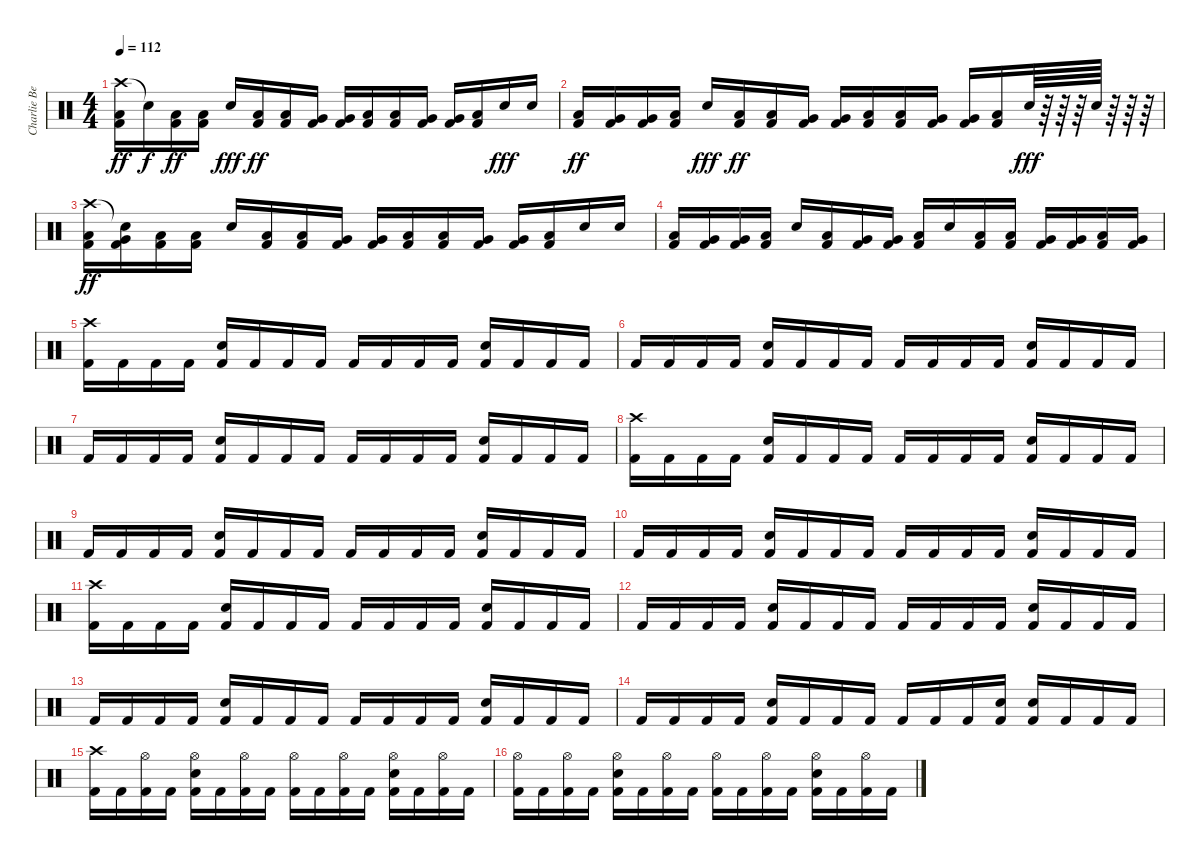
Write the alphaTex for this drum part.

\track ("Charlie Benante" "Charlie Be") {instrument percussion}
\staff {score}
\articulation defaults
\ts (4 4)
\tempo 112
\clef neutral
\ks c
("Crash high (hit)" "Kick (hit) 2" "Low Floor Tom (hit)").16{dy ff} "Snare (hit)"{t}.16{dy f} ("Kick (hit) 2" "Low Floor Tom (hit)").16{dy ff} ("Kick (hit) 2" "Low Floor Tom (hit)").16 "Snare (hit) 2".16{dy fff} ("Kick (hit) 2" "Low Floor Tom (hit)").16{dy ff} ("Kick (hit) 2" "Low Floor Tom (hit)").16 ("Kick (hit) 2" "Very Low Tom (hit)").16 ("Kick (hit) 2" "Very Low Tom (hit)").16 ("Kick (hit) 2" "Low Tom (hit)").16 ("Kick (hit) 2" "Low Tom (hit)").16 ("Kick (hit) 2" "Very Low Tom (hit)").16 ("Kick (hit) 2" "Very Low Tom (hit)").16 ("Kick (hit) 2" "Low Floor Tom (hit)").16 "Snare (hit) 2".16{dy fff} "Snare (hit) 2".16 |
("Kick (hit) 2" "Low Floor Tom (hit)").16{dy ff} ("Kick (hit) 2" "Very Low Tom (hit)").16 ("Kick (hit) 2" "Very Low Tom (hit)").16 ("Kick (hit) 2" "Low Floor Tom (hit)").16 "Snare (hit) 2".16{dy fff} ("Kick (hit) 2" "Low Floor Tom (hit)").16{dy ff} ("Kick (hit) 2" "Low Floor Tom (hit)").16 ("Kick (hit) 2" "Very Low Tom (hit)").16 ("Kick (hit) 2" "Very Low Tom (hit)").16 ("Kick (hit) 2" "Low Tom (hit)").16 ("Kick (hit) 2" "Low Tom (hit)").16 ("Kick (hit) 2" "Very Low Tom (hit)").16 ("Kick (hit) 2" "Very Low Tom (hit)").16 ("Kick (hit) 2" "Low Floor Tom (hit)").16 "Snare (hit) 2".64{dy fff} r.64 r.64 r.64 "Snare (hit) 2".64 r.64 r.64 r.64 |
("Crash high (hit)" "Kick (hit) 2" "Low Floor Tom (hit)").16{dy ff} ("Snare (hit)"{t} "Kick (hit) 2" "Very Low Tom (hit)").16 ("Kick (hit) 2" "Low Tom (hit)").16 ("Kick (hit) 2" "Low Floor Tom (hit)").16 "Snare (hit) 2".16 ("Kick (hit) 2" "Low Floor Tom (hit)").16 ("Kick (hit) 2" "Low Floor Tom (hit)").16 ("Kick (hit) 2" "Very Low Tom (hit)").16 ("Kick (hit) 2" "Very Low Tom (hit)").16 ("Kick (hit) 2" "Low Tom (hit)").16 ("Kick (hit) 2" "Low Tom (hit)").16 ("Kick (hit) 2" "Very Low Tom (hit)").16 ("Kick (hit) 2" "Very Low Tom (hit)").16 ("Kick (hit) 2" "Low Floor Tom (hit)").16 "Snare (hit) 2".16 "Snare (hit) 2".16 |
("Kick (hit) 2" "Low Floor Tom (hit)").16 ("Kick (hit) 2" "Very Low Tom (hit)").16 ("Kick (hit) 2" "Very Low Tom (hit)").16 ("Kick (hit) 2" "Low Floor Tom (hit)").16 "Snare (hit) 2".16 ("Kick (hit) 2" "Low Floor Tom (hit)").16 ("Kick (hit) 2" "Very Low Tom (hit)").16 ("Kick (hit) 2" "Very Low Tom (hit)").16 ("Kick (hit) 2" "Low Floor Tom (hit)").16 "Snare (hit) 2".16 ("Kick (hit) 2" "Low Floor Tom (hit)").16 ("Kick (hit) 2" "Low Floor Tom (hit)").16 ("Kick (hit) 2" "Very Low Tom (hit)").16 ("Kick (hit) 2" "Very Low Tom (hit)").16 ("Kick (hit) 2" "Low Floor Tom (hit)").16 ("Kick (hit) 2" "Very Low Tom (hit)").16 |
("Crash high (hit)" "Kick (hit) 2").16 "Kick (hit) 2".16 "Kick (hit) 2".16 "Kick (hit) 2".16 ("Snare (hit) 2" "Kick (hit) 2").16 "Kick (hit) 2".16 "Kick (hit) 2".16 "Kick (hit) 2".16 "Kick (hit) 2".16 "Kick (hit) 2".16 "Kick (hit) 2".16 "Kick (hit) 2".16 ("Snare (hit) 2" "Kick (hit) 2").16 "Kick (hit) 2".16 "Kick (hit) 2".16 "Kick (hit) 2".16 |
"Kick (hit) 2".16 "Kick (hit) 2".16 "Kick (hit) 2".16 "Kick (hit) 2".16 ("Snare (hit) 2" "Kick (hit) 2").16 "Kick (hit) 2".16 "Kick (hit) 2".16 "Kick (hit) 2".16 "Kick (hit) 2".16 "Kick (hit) 2".16 "Kick (hit) 2".16 "Kick (hit) 2".16 ("Snare (hit) 2" "Kick (hit) 2").16 "Kick (hit) 2".16 "Kick (hit) 2".16 "Kick (hit) 2".16 |
"Kick (hit) 2".16 "Kick (hit) 2".16 "Kick (hit) 2".16 "Kick (hit) 2".16 ("Snare (hit) 2" "Kick (hit) 2").16 "Kick (hit) 2".16 "Kick (hit) 2".16 "Kick (hit) 2".16 "Kick (hit) 2".16 "Kick (hit) 2".16 "Kick (hit) 2".16 "Kick (hit) 2".16 ("Snare (hit) 2" "Kick (hit) 2").16 "Kick (hit) 2".16 "Kick (hit) 2".16 "Kick (hit) 2".16 |
("Crash high (hit)" "Kick (hit) 2").16 "Kick (hit) 2".16 "Kick (hit) 2".16 "Kick (hit) 2".16 ("Snare (hit) 2" "Kick (hit) 2").16 "Kick (hit) 2".16 "Kick (hit) 2".16 "Kick (hit) 2".16 "Kick (hit) 2".16 "Kick (hit) 2".16 "Kick (hit) 2".16 "Kick (hit) 2".16 ("Snare (hit) 2" "Kick (hit) 2").16 "Kick (hit) 2".16 "Kick (hit) 2".16 "Kick (hit) 2".16 |
"Kick (hit) 2".16 "Kick (hit) 2".16 "Kick (hit) 2".16 "Kick (hit) 2".16 ("Snare (hit) 2" "Kick (hit) 2").16 "Kick (hit) 2".16 "Kick (hit) 2".16 "Kick (hit) 2".16 "Kick (hit) 2".16 "Kick (hit) 2".16 "Kick (hit) 2".16 "Kick (hit) 2".16 ("Snare (hit) 2" "Kick (hit) 2").16 "Kick (hit) 2".16 "Kick (hit) 2".16 "Kick (hit) 2".16 |
"Kick (hit) 2".16 "Kick (hit) 2".16 "Kick (hit) 2".16 "Kick (hit) 2".16 ("Snare (hit) 2" "Kick (hit) 2").16 "Kick (hit) 2".16 "Kick (hit) 2".16 "Kick (hit) 2".16 "Kick (hit) 2".16 "Kick (hit) 2".16 "Kick (hit) 2".16 "Kick (hit) 2".16 ("Snare (hit) 2" "Kick (hit) 2").16 "Kick (hit) 2".16 "Kick (hit) 2".16 "Kick (hit) 2".16 |
("Crash high (hit)" "Kick (hit) 2").16 "Kick (hit) 2".16 "Kick (hit) 2".16 "Kick (hit) 2".16 ("Snare (hit) 2" "Kick (hit) 2").16 "Kick (hit) 2".16 "Kick (hit) 2".16 "Kick (hit) 2".16 "Kick (hit) 2".16 "Kick (hit) 2".16 "Kick (hit) 2".16 "Kick (hit) 2".16 ("Snare (hit) 2" "Kick (hit) 2").16 "Kick (hit) 2".16 "Kick (hit) 2".16 "Kick (hit) 2".16 |
"Kick (hit) 2".16 "Kick (hit) 2".16 "Kick (hit) 2".16 "Kick (hit) 2".16 ("Snare (hit) 2" "Kick (hit) 2").16 "Kick (hit) 2".16 "Kick (hit) 2".16 "Kick (hit) 2".16 "Kick (hit) 2".16 "Kick (hit) 2".16 "Kick (hit) 2".16 "Kick (hit) 2".16 ("Snare (hit) 2" "Kick (hit) 2").16 "Kick (hit) 2".16 "Kick (hit) 2".16 "Kick (hit) 2".16 |
"Kick (hit) 2".16 "Kick (hit) 2".16 "Kick (hit) 2".16 "Kick (hit) 2".16 ("Snare (hit) 2" "Kick (hit) 2").16 "Kick (hit) 2".16 "Kick (hit) 2".16 "Kick (hit) 2".16 "Kick (hit) 2".16 "Kick (hit) 2".16 "Kick (hit) 2".16 "Kick (hit) 2".16 ("Snare (hit) 2" "Kick (hit) 2").16 "Kick (hit) 2".16 "Kick (hit) 2".16 "Kick (hit) 2".16 |
"Kick (hit) 2".16 "Kick (hit) 2".16 "Kick (hit) 2".16 "Kick (hit) 2".16 ("Snare (hit) 2" "Kick (hit) 2").16 "Kick (hit) 2".16 "Kick (hit) 2".16 "Kick (hit) 2".16 "Kick (hit) 2".16 "Kick (hit) 2".16 "Kick (hit) 2".16 ("Snare (hit) 2" "Kick (hit) 2").16 ("Snare (hit) 2" "Kick (hit) 2").16 "Kick (hit) 2".16 "Kick (hit) 2".16 "Kick (hit) 2".16 |
("Crash high (hit)" "Kick (hit) 2").16 "Kick (hit) 2".16 ("Hi-Hat (open)" "Kick (hit) 2").16 "Kick (hit) 2".16 ("Hi-Hat (open)" "Snare (hit) 2" "Kick (hit) 2").16 "Kick (hit) 2".16 ("Hi-Hat (open)" "Kick (hit) 2").16 "Kick (hit) 2".16 ("Hi-Hat (open)" "Kick (hit) 2").16 "Kick (hit) 2".16 ("Hi-Hat (open)" "Kick (hit) 2").16 "Kick (hit) 2".16 ("Hi-Hat (open)" "Snare (hit) 2" "Kick (hit) 2").16 "Kick (hit) 2".16 ("Hi-Hat (open)" "Kick (hit) 2").16 "Kick (hit) 2".16 |
("Hi-Hat (open)" "Kick (hit) 2").16 "Kick (hit) 2".16 ("Hi-Hat (open)" "Kick (hit) 2").16 "Kick (hit) 2".16 ("Hi-Hat (open)" "Snare (hit) 2" "Kick (hit) 2").16 "Kick (hit) 2".16 ("Hi-Hat (open)" "Kick (hit) 2").16 "Kick (hit) 2".16 ("Hi-Hat (open)" "Kick (hit) 2").16 "Kick (hit) 2".16 ("Hi-Hat (open)" "Kick (hit) 2").16 "Kick (hit) 2".16 ("Hi-Hat (open)" "Snare (hit) 2" "Kick (hit) 2").16 "Kick (hit) 2".16 ("Hi-Hat (open)" "Kick (hit) 2").16 "Kick (hit) 2".16
